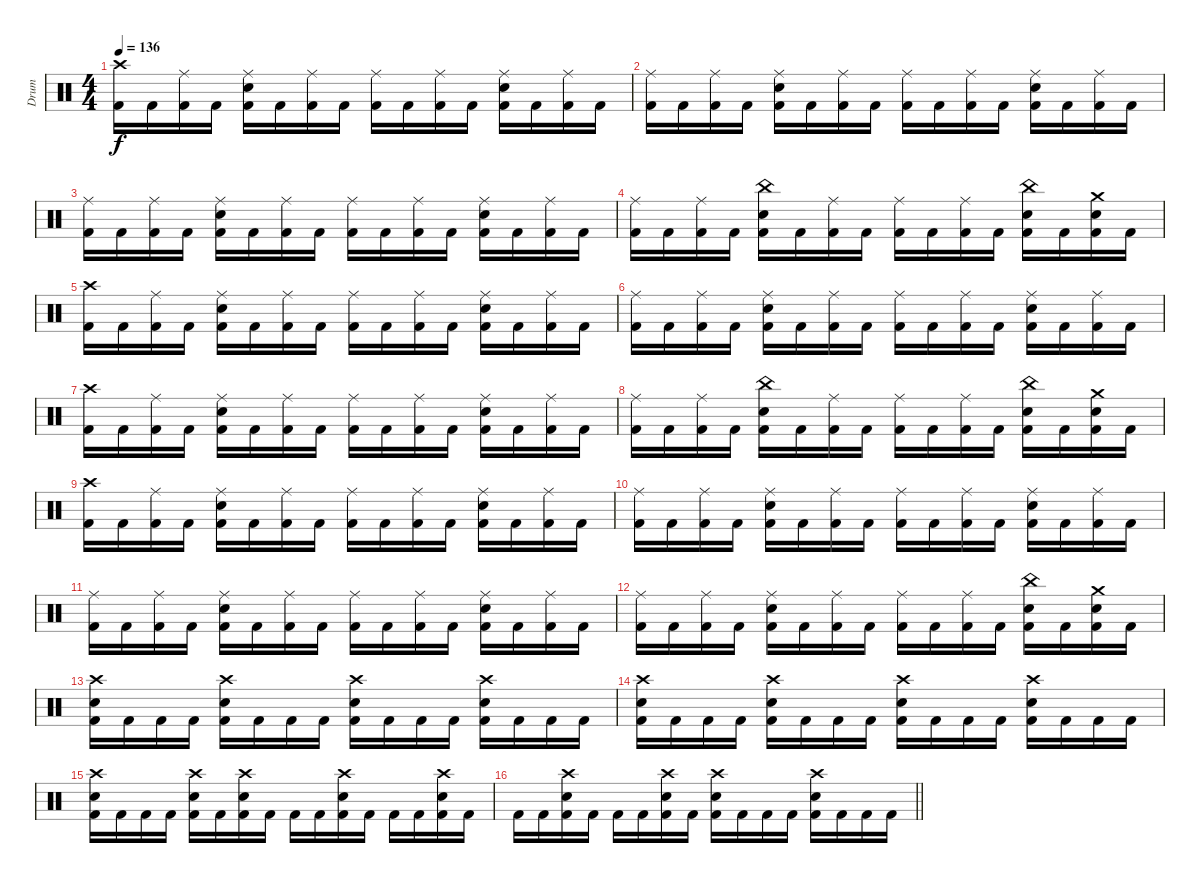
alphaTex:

\track ("Drum" "Drum") {instrument percussion}
\staff {score}
\articulation defaults
\ts (4 4)
\section ("" "")
\tempo 136
\clef neutral
\ks c
("Crash high (hit)" "Kick (hit) 2").16{dy f} "Kick (hit) 2".16 ("Ride (middle)" "Kick (hit) 2").16 "Kick (hit) 2".16 ("Ride (middle)" "Snare (hit) 2" "Kick (hit) 2").16 "Kick (hit) 2".16 ("Ride (middle)" "Kick (hit) 2").16 "Kick (hit) 2".16 ("Ride (middle)" "Kick (hit) 2").16 "Kick (hit) 2".16 ("Ride (middle)" "Kick (hit) 2").16 "Kick (hit) 2".16 ("Ride (middle)" "Snare (hit) 2" "Kick (hit) 2").16 "Kick (hit) 2".16 ("Ride (middle)" "Kick (hit) 2").16 "Kick (hit) 2".16 |
("Ride (middle)" "Kick (hit) 2").16 "Kick (hit) 2".16 ("Ride (middle)" "Kick (hit) 2").16 "Kick (hit) 2".16 ("Ride (middle)" "Snare (hit) 2" "Kick (hit) 2").16 "Kick (hit) 2".16 ("Ride (middle)" "Kick (hit) 2").16 "Kick (hit) 2".16 ("Ride (middle)" "Kick (hit) 2").16 "Kick (hit) 2".16 ("Ride (middle)" "Kick (hit) 2").16 "Kick (hit) 2".16 ("Ride (middle)" "Snare (hit) 2" "Kick (hit) 2").16 "Kick (hit) 2".16 ("Ride (middle)" "Kick (hit) 2").16 "Kick (hit) 2".16 |
("Ride (middle)" "Kick (hit) 2").16 "Kick (hit) 2".16 ("Ride (middle)" "Kick (hit) 2").16 "Kick (hit) 2".16 ("Ride (middle)" "Snare (hit) 2" "Kick (hit) 2").16 "Kick (hit) 2".16 ("Ride (middle)" "Kick (hit) 2").16 "Kick (hit) 2".16 ("Ride (middle)" "Kick (hit) 2").16 "Kick (hit) 2".16 ("Ride (middle)" "Kick (hit) 2").16 "Kick (hit) 2".16 ("Ride (middle)" "Snare (hit) 2" "Kick (hit) 2").16 "Kick (hit) 2".16 ("Ride (middle)" "Kick (hit) 2").16 "Kick (hit) 2".16 |
("Ride (middle)" "Kick (hit) 2").16 "Kick (hit) 2".16 ("Ride (middle)" "Kick (hit) 2").16 "Kick (hit) 2".16 ("China (hit)" "Snare (hit) 2" "Kick (hit) 2").16 "Kick (hit) 2".16 ("Ride (middle)" "Kick (hit) 2").16 "Kick (hit) 2".16 ("Ride (middle)" "Kick (hit) 2").16 "Kick (hit) 2".16 ("Ride (middle)" "Kick (hit) 2").16 "Kick (hit) 2".16 ("China (hit)" "Snare (hit) 2" "Kick (hit) 2").16 "Kick (hit) 2".16 ("Crash medium (hit)" "Snare (hit) 2" "Kick (hit) 2").16 "Kick (hit) 2".16 |
("Crash high (hit)" "Kick (hit) 2").16 "Kick (hit) 2".16 ("Ride (middle)" "Kick (hit) 2").16 "Kick (hit) 2".16 ("Ride (middle)" "Snare (hit) 2" "Kick (hit) 2").16 "Kick (hit) 2".16 ("Ride (middle)" "Kick (hit) 2").16 "Kick (hit) 2".16 ("Ride (middle)" "Kick (hit) 2").16 "Kick (hit) 2".16 ("Ride (middle)" "Kick (hit) 2").16 "Kick (hit) 2".16 ("Ride (middle)" "Snare (hit) 2" "Kick (hit) 2").16 "Kick (hit) 2".16 ("Ride (middle)" "Kick (hit) 2").16 "Kick (hit) 2".16 |
("Ride (middle)" "Kick (hit) 2").16 "Kick (hit) 2".16 ("Ride (middle)" "Kick (hit) 2").16 "Kick (hit) 2".16 ("Ride (middle)" "Snare (hit) 2" "Kick (hit) 2").16 "Kick (hit) 2".16 ("Ride (middle)" "Kick (hit) 2").16 "Kick (hit) 2".16 ("Ride (middle)" "Kick (hit) 2").16 "Kick (hit) 2".16 ("Ride (middle)" "Kick (hit) 2").16 "Kick (hit) 2".16 ("Ride (middle)" "Snare (hit) 2" "Kick (hit) 2").16 "Kick (hit) 2".16 ("Ride (middle)" "Kick (hit) 2").16 "Kick (hit) 2".16 |
("Crash high (hit)" "Kick (hit) 2").16 "Kick (hit) 2".16 ("Ride (middle)" "Kick (hit) 2").16 "Kick (hit) 2".16 ("Ride (middle)" "Snare (hit) 2" "Kick (hit) 2").16 "Kick (hit) 2".16 ("Ride (middle)" "Kick (hit) 2").16 "Kick (hit) 2".16 ("Ride (middle)" "Kick (hit) 2").16 "Kick (hit) 2".16 ("Ride (middle)" "Kick (hit) 2").16 "Kick (hit) 2".16 ("Ride (middle)" "Snare (hit) 2" "Kick (hit) 2").16 "Kick (hit) 2".16 ("Ride (middle)" "Kick (hit) 2").16 "Kick (hit) 2".16 |
("Ride (middle)" "Kick (hit) 2").16 "Kick (hit) 2".16 ("Ride (middle)" "Kick (hit) 2").16 "Kick (hit) 2".16 ("China (hit)" "Snare (hit) 2" "Kick (hit) 2").16 "Kick (hit) 2".16 ("Ride (middle)" "Kick (hit) 2").16 "Kick (hit) 2".16 ("Ride (middle)" "Kick (hit) 2").16 "Kick (hit) 2".16 ("Ride (middle)" "Kick (hit) 2").16 "Kick (hit) 2".16 ("China (hit)" "Snare (hit) 2" "Kick (hit) 2").16 "Kick (hit) 2".16 ("Crash medium (hit)" "Snare (hit) 2" "Kick (hit) 2").16 "Kick (hit) 2".16 |
("Crash high (hit)" "Kick (hit) 2").16 "Kick (hit) 2".16 ("Ride (middle)" "Kick (hit) 2").16 "Kick (hit) 2".16 ("Ride (middle)" "Snare (hit) 2" "Kick (hit) 2").16 "Kick (hit) 2".16 ("Ride (middle)" "Kick (hit) 2").16 "Kick (hit) 2".16 ("Ride (middle)" "Kick (hit) 2").16 "Kick (hit) 2".16 ("Ride (middle)" "Kick (hit) 2").16 "Kick (hit) 2".16 ("Ride (middle)" "Snare (hit) 2" "Kick (hit) 2").16 "Kick (hit) 2".16 ("Ride (middle)" "Kick (hit) 2").16 "Kick (hit) 2".16 |
("Ride (middle)" "Kick (hit) 2").16 "Kick (hit) 2".16 ("Ride (middle)" "Kick (hit) 2").16 "Kick (hit) 2".16 ("Ride (middle)" "Snare (hit) 2" "Kick (hit) 2").16 "Kick (hit) 2".16 ("Ride (middle)" "Kick (hit) 2").16 "Kick (hit) 2".16 ("Ride (middle)" "Kick (hit) 2").16 "Kick (hit) 2".16 ("Ride (middle)" "Kick (hit) 2").16 "Kick (hit) 2".16 ("Ride (middle)" "Snare (hit) 2" "Kick (hit) 2").16 "Kick (hit) 2".16 ("Ride (middle)" "Kick (hit) 2").16 "Kick (hit) 2".16 |
("Ride (middle)" "Kick (hit) 2").16 "Kick (hit) 2".16 ("Ride (middle)" "Kick (hit) 2").16 "Kick (hit) 2".16 ("Ride (middle)" "Snare (hit) 2" "Kick (hit) 2").16 "Kick (hit) 2".16 ("Ride (middle)" "Kick (hit) 2").16 "Kick (hit) 2".16 ("Ride (middle)" "Kick (hit) 2").16 "Kick (hit) 2".16 ("Ride (middle)" "Kick (hit) 2").16 "Kick (hit) 2".16 ("Ride (middle)" "Snare (hit) 2" "Kick (hit) 2").16 "Kick (hit) 2".16 ("Ride (middle)" "Kick (hit) 2").16 "Kick (hit) 2".16 |
("Ride (middle)" "Kick (hit) 2").16 "Kick (hit) 2".16 ("Ride (middle)" "Kick (hit) 2").16 "Kick (hit) 2".16 ("Ride (middle)" "Snare (hit) 2" "Kick (hit) 2").16 "Kick (hit) 2".16 ("Ride (middle)" "Kick (hit) 2").16 "Kick (hit) 2".16 ("Ride (middle)" "Kick (hit) 2").16 "Kick (hit) 2".16 ("Ride (middle)" "Kick (hit) 2").16 "Kick (hit) 2".16 ("China (hit)" "Snare (hit) 2" "Kick (hit) 2").16 "Kick (hit) 2".16 ("Crash medium (hit)" "Snare (hit) 2" "Kick (hit) 2").16 "Kick (hit) 2".16 |
("Crash high (hit)" "Snare (hit) 2" "Kick (hit) 2").16 "Kick (hit) 2".16 "Kick (hit) 2".16 "Kick (hit) 2".16 ("Crash high (hit)" "Snare (hit) 2" "Kick (hit) 2").16 "Kick (hit) 2".16 "Kick (hit) 2".16 "Kick (hit) 2".16 ("Crash high (hit)" "Snare (hit) 2" "Kick (hit) 2").16 "Kick (hit) 2".16 "Kick (hit) 2".16 "Kick (hit) 2".16 ("Crash high (hit)" "Snare (hit) 2" "Kick (hit) 2").16 "Kick (hit) 2".16 "Kick (hit) 2".16 "Kick (hit) 2".16 |
("Crash high (hit)" "Snare (hit) 2" "Kick (hit) 2").16 "Kick (hit) 2".16 "Kick (hit) 2".16 "Kick (hit) 2".16 ("Crash high (hit)" "Snare (hit) 2" "Kick (hit) 2").16 "Kick (hit) 2".16 "Kick (hit) 2".16 "Kick (hit) 2".16 ("Crash high (hit)" "Snare (hit) 2" "Kick (hit) 2").16 "Kick (hit) 2".16 "Kick (hit) 2".16 "Kick (hit) 2".16 ("Crash high (hit)" "Snare (hit) 2" "Kick (hit) 2").16 "Kick (hit) 2".16 "Kick (hit) 2".16 "Kick (hit) 2".16 |
("Crash high (hit)" "Snare (hit) 2" "Kick (hit) 2").16 "Kick (hit) 2".16 "Kick (hit) 2".16 "Kick (hit) 2".16 ("Crash high (hit)" "Snare (hit) 2" "Kick (hit) 2").16 "Kick (hit) 2".16 ("Crash high (hit)" "Snare (hit) 2" "Kick (hit) 2").16 "Kick (hit) 2".16 "Kick (hit) 2".16 "Kick (hit) 2".16 ("Crash high (hit)" "Snare (hit) 2" "Kick (hit) 2").16 "Kick (hit) 2".16 "Kick (hit) 2".16 "Kick (hit) 2".16 ("Crash high (hit)" "Snare (hit) 2" "Kick (hit) 2").16 "Kick (hit) 2".16 |
\barLineRight lightlight "Kick (hit) 2".16 "Kick (hit) 2".16
("Crash high (hit)" "Snare (hit) 2" "Kick (hit) 2").16 "Kick (hit) 2".16 "Kick (hit) 2".16 "Kick (hit) 2".16 ("Crash high (hit)" "Snare (hit) 2" "Kick (hit) 2").16 "Kick (hit) 2".16 ("Crash high (hit)" "Snare (hit) 2" "Kick (hit) 2").16 "Kick (hit) 2".16 "Kick (hit) 2".16 "Kick (hit) 2".16 ("Crash high (hit)" "Snare (hit) 2" "Kick (hit) 2").16 "Kick (hit) 2".16 "Kick (hit) 2".16 "Kick (hit) 2".16
